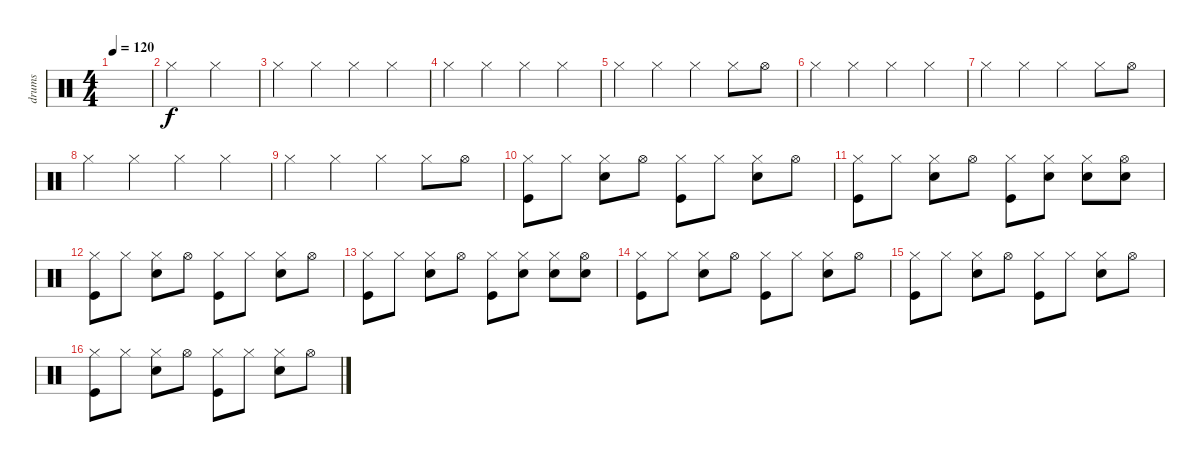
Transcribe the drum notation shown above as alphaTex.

\track ("drums" "drums") {instrument percussion}
\staff {score}
\articulation defaults
\ts (4 4)
\tempo 120
\clef neutral
\ks c
|
"Hi-Hat (closed)".2 "Hi-Hat (closed)".2 |
"Hi-Hat (closed)".4 "Hi-Hat (closed)".4 "Hi-Hat (closed)".4 "Hi-Hat (closed)".4 |
"Hi-Hat (closed)".4 "Hi-Hat (closed)".4 "Hi-Hat (closed)".4 "Hi-Hat (closed)".4 |
"Hi-Hat (closed)".4 "Hi-Hat (closed)".4 "Hi-Hat (closed)".4 "Hi-Hat (closed)".8 "Hi-Hat (open)".8 |
"Hi-Hat (closed)".4 "Hi-Hat (closed)".4 "Hi-Hat (closed)".4 "Hi-Hat (closed)".4 |
"Hi-Hat (closed)".4 "Hi-Hat (closed)".4 "Hi-Hat (closed)".4 "Hi-Hat (closed)".8 "Hi-Hat (open)".8 |
"Hi-Hat (closed)".4 "Hi-Hat (closed)".4 "Hi-Hat (closed)".4 "Hi-Hat (closed)".4 |
"Hi-Hat (closed)".4 "Hi-Hat (closed)".4 "Hi-Hat (closed)".4 "Hi-Hat (closed)".8 "Hi-Hat (open)".8 |
("Hi-Hat (closed)" "Kick (hit)").8 "Hi-Hat (closed)".8 ("Hi-Hat (closed)" "Snare (hit) 2").8 "Hi-Hat (open)".8 ("Hi-Hat (closed)" "Kick (hit)").8 "Hi-Hat (closed)".8 ("Hi-Hat (closed)" "Snare (hit) 2").8 "Hi-Hat (open)".8 |
("Hi-Hat (closed)" "Kick (hit)").8 "Hi-Hat (closed)".8 ("Hi-Hat (closed)" "Snare (hit) 2").8 "Hi-Hat (open)".8 ("Hi-Hat (closed)" "Kick (hit)").8 ("Hi-Hat (closed)" "Snare (hit) 2").8 ("Hi-Hat (closed)" "Snare (hit) 2").8 ("Hi-Hat (open)" "Snare (hit) 2").8 |
("Hi-Hat (closed)" "Kick (hit)").8 "Hi-Hat (closed)".8 ("Hi-Hat (closed)" "Snare (hit) 2").8 "Hi-Hat (open)".8 ("Hi-Hat (closed)" "Kick (hit)").8 "Hi-Hat (closed)".8 ("Hi-Hat (closed)" "Snare (hit) 2").8 "Hi-Hat (open)".8 |
("Hi-Hat (closed)" "Kick (hit)").8 "Hi-Hat (closed)".8 ("Hi-Hat (closed)" "Snare (hit) 2").8 "Hi-Hat (open)".8 ("Hi-Hat (closed)" "Kick (hit)").8 ("Hi-Hat (closed)" "Snare (hit) 2").8 ("Hi-Hat (closed)" "Snare (hit) 2").8 ("Hi-Hat (open)" "Snare (hit) 2").8 |
("Hi-Hat (closed)" "Kick (hit)").8 "Hi-Hat (closed)".8 ("Hi-Hat (closed)" "Snare (hit) 2").8 "Hi-Hat (open)".8 ("Hi-Hat (closed)" "Kick (hit)").8 "Hi-Hat (closed)".8 ("Hi-Hat (closed)" "Snare (hit) 2").8 "Hi-Hat (open)".8 |
("Hi-Hat (closed)" "Kick (hit)").8 "Hi-Hat (closed)".8 ("Hi-Hat (closed)" "Snare (hit) 2").8 "Hi-Hat (open)".8 ("Hi-Hat (closed)" "Kick (hit)").8 "Hi-Hat (closed)".8 ("Hi-Hat (closed)" "Snare (hit) 2").8 "Hi-Hat (open)".8 |
("Hi-Hat (closed)" "Kick (hit)").8 "Hi-Hat (closed)".8 ("Hi-Hat (closed)" "Snare (hit) 2").8 "Hi-Hat (open)".8 ("Hi-Hat (closed)" "Kick (hit)").8 "Hi-Hat (closed)".8 ("Hi-Hat (closed)" "Snare (hit) 2").8 "Hi-Hat (open)".8
